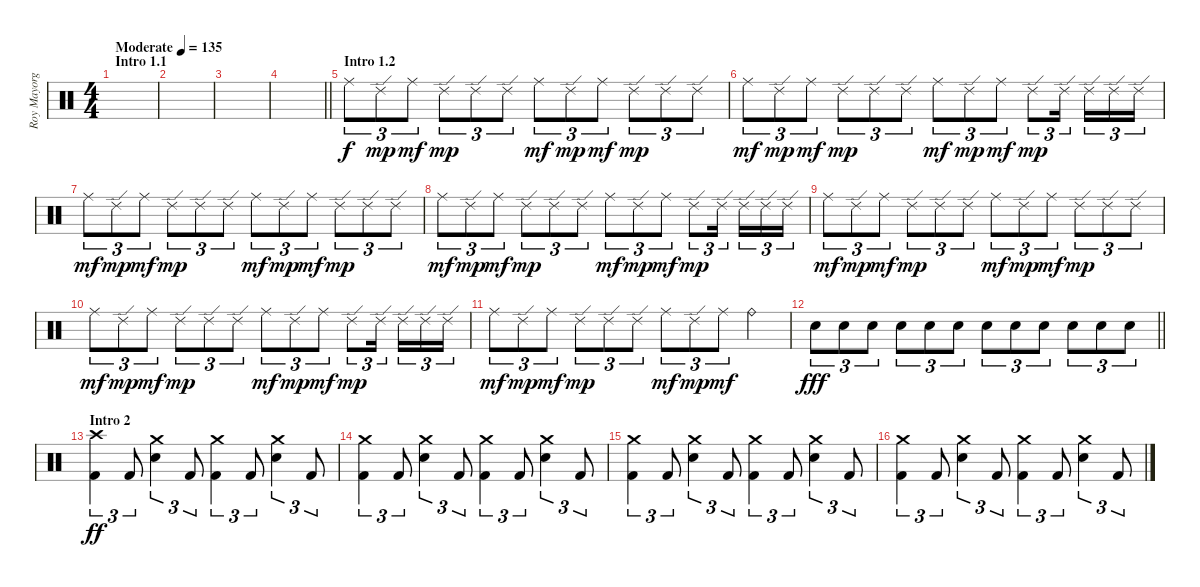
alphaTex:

\track ("Roy Mayorga" "Roy Mayorg") {instrument percussion}
\staff {score}
\articulation defaults
\ts (4 4)
\section ("" "Intro 1.1")
\tempo (135 "Moderate")
\clef neutral
\ks c
|
|
|
\barLineRight lightlight
|
\section ("" "Intro 1.2")
"Ride (middle)".8{tu (3 2)} "Ride (edge) 2".8{tu (3 2) dy mp} "Ride (middle)".8{tu (3 2) dy mf} "Ride (edge) 2".8{tu (3 2) dy mp} "Ride (edge) 2".8{tu (3 2)} "Ride (edge) 2".8{tu (3 2)} "Ride (middle)".8{tu (3 2) dy mf} "Ride (edge) 2".8{tu (3 2) dy mp} "Ride (middle)".8{tu (3 2) dy mf} "Ride (edge) 2".8{tu (3 2) dy mp} "Ride (edge) 2".8{tu (3 2)} "Ride (edge) 2".8{tu (3 2)} |
"Ride (middle)".8{tu (3 2) dy mf} "Ride (edge) 2".8{tu (3 2) dy mp} "Ride (middle)".8{tu (3 2) dy mf} "Ride (edge) 2".8{tu (3 2) dy mp} "Ride (edge) 2".8{tu (3 2)} "Ride (edge) 2".8{tu (3 2)} "Ride (middle)".8{tu (3 2) dy mf} "Ride (edge) 2".8{tu (3 2) dy mp} "Ride (middle)".8{tu (3 2) dy mf} "Ride (edge) 2".8{tu (3 2) dy mp} "Ride (edge) 2".16{tu (3 2) beam splitsecondary} "Ride (edge) 2".16{tu (3 2)} "Ride (edge) 2".16{tu (3 2)} "Ride (edge) 2".16{tu (3 2)} |
"Ride (middle)".8{tu (3 2) dy mf} "Ride (edge) 2".8{tu (3 2) dy mp} "Ride (middle)".8{tu (3 2) dy mf} "Ride (edge) 2".8{tu (3 2) dy mp} "Ride (edge) 2".8{tu (3 2)} "Ride (edge) 2".8{tu (3 2)} "Ride (middle)".8{tu (3 2) dy mf} "Ride (edge) 2".8{tu (3 2) dy mp} "Ride (middle)".8{tu (3 2) dy mf} "Ride (edge) 2".8{tu (3 2) dy mp} "Ride (edge) 2".8{tu (3 2)} "Ride (edge) 2".8{tu (3 2)} |
"Ride (middle)".8{tu (3 2) dy mf} "Ride (edge) 2".8{tu (3 2) dy mp} "Ride (middle)".8{tu (3 2) dy mf} "Ride (edge) 2".8{tu (3 2) dy mp} "Ride (edge) 2".8{tu (3 2)} "Ride (edge) 2".8{tu (3 2)} "Ride (middle)".8{tu (3 2) dy mf} "Ride (edge) 2".8{tu (3 2) dy mp} "Ride (middle)".8{tu (3 2) dy mf} "Ride (edge) 2".8{tu (3 2) dy mp} "Ride (edge) 2".16{tu (3 2) beam splitsecondary} "Ride (edge) 2".16{tu (3 2)} "Ride (edge) 2".16{tu (3 2)} "Ride (edge) 2".16{tu (3 2)} |
"Ride (middle)".8{tu (3 2) dy mf} "Ride (edge) 2".8{tu (3 2) dy mp} "Ride (middle)".8{tu (3 2) dy mf} "Ride (edge) 2".8{tu (3 2) dy mp} "Ride (edge) 2".8{tu (3 2)} "Ride (edge) 2".8{tu (3 2)} "Ride (middle)".8{tu (3 2) dy mf} "Ride (edge) 2".8{tu (3 2) dy mp} "Ride (middle)".8{tu (3 2) dy mf} "Ride (edge) 2".8{tu (3 2) dy mp} "Ride (edge) 2".8{tu (3 2)} "Ride (edge) 2".8{tu (3 2)} |
"Ride (middle)".8{tu (3 2) dy mf} "Ride (edge) 2".8{tu (3 2) dy mp} "Ride (middle)".8{tu (3 2) dy mf} "Ride (edge) 2".8{tu (3 2) dy mp} "Ride (edge) 2".8{tu (3 2)} "Ride (edge) 2".8{tu (3 2)} "Ride (middle)".8{tu (3 2) dy mf} "Ride (edge) 2".8{tu (3 2) dy mp} "Ride (middle)".8{tu (3 2) dy mf} "Ride (edge) 2".8{tu (3 2) dy mp} "Ride (edge) 2".16{tu (3 2) beam splitsecondary} "Ride (edge) 2".16{tu (3 2)} "Ride (edge) 2".16{tu (3 2)} "Ride (edge) 2".16{tu (3 2)} |
"Ride (middle)".8{tu (3 2) dy mf} "Ride (edge) 2".8{tu (3 2) dy mp} "Ride (middle)".8{tu (3 2) dy mf} "Ride (edge) 2".8{tu (3 2) dy mp} "Ride (edge) 2".8{tu (3 2)} "Ride (edge) 2".8{tu (3 2)} "Ride (middle)".8{tu (3 2) dy mf} "Ride (edge) 2".8{tu (3 2) dy mp} "Ride (middle)".8{tu (3 2) dy mf} "Ride (bell)".4 |
\barLineRight lightlight "Electric Snare (hit)".8{tu (3 2) dy fff} "Electric Snare (hit)".8{tu (3 2)} "Electric Snare (hit)".8{tu (3 2)} "Electric Snare (hit)".8{tu (3 2)} "Electric Snare (hit)".8{tu (3 2)} "Electric Snare (hit)".8{tu (3 2)} "Electric Snare (hit)".8{tu (3 2)} "Electric Snare (hit)".8{tu (3 2)} "Electric Snare (hit)".8{tu (3 2)} "Electric Snare (hit)".8{tu (3 2)} "Electric Snare (hit)".8{tu (3 2)} "Electric Snare (hit)".8{tu (3 2)}
|
\section ("" "Intro 2")
("Crash high (hit)" "Kick (hit) 2").4{tu (3 2) dy ff} "Kick (hit) 2".8{tu (3 2)} ("Crash medium (hit)" "Electric Snare (hit)").4{tu (3 2)} "Kick (hit) 2".8{tu (3 2)} ("Crash medium (hit)" "Kick (hit) 2").4{tu (3 2)} "Kick (hit) 2".8{tu (3 2)} ("Crash medium (hit)" "Electric Snare (hit)").4{tu (3 2)} "Kick (hit) 2".8{tu (3 2)} |
("Crash medium (hit)" "Kick (hit) 2").4{tu (3 2)} "Kick (hit) 2".8{tu (3 2)} ("Crash medium (hit)" "Electric Snare (hit)").4{tu (3 2)} "Kick (hit) 2".8{tu (3 2)} ("Crash medium (hit)" "Kick (hit) 2").4{tu (3 2)} "Kick (hit) 2".8{tu (3 2)} ("Crash medium (hit)" "Electric Snare (hit)").4{tu (3 2)} "Kick (hit) 2".8{tu (3 2)} |
("Crash medium (hit)" "Kick (hit) 2").4{tu (3 2)} "Kick (hit) 2".8{tu (3 2)} ("Crash medium (hit)" "Electric Snare (hit)").4{tu (3 2)} "Kick (hit) 2".8{tu (3 2)} ("Crash medium (hit)" "Kick (hit) 2").4{tu (3 2)} "Kick (hit) 2".8{tu (3 2)} ("Crash medium (hit)" "Electric Snare (hit)").4{tu (3 2)} "Kick (hit) 2".8{tu (3 2)} |
("Crash medium (hit)" "Kick (hit) 2").4{tu (3 2)} "Kick (hit) 2".8{tu (3 2)} ("Crash medium (hit)" "Electric Snare (hit)").4{tu (3 2)} "Kick (hit) 2".8{tu (3 2)} ("Crash medium (hit)" "Kick (hit) 2").4{tu (3 2)} "Kick (hit) 2".8{tu (3 2)} ("Crash medium (hit)" "Electric Snare (hit)").4{tu (3 2)} "Kick (hit) 2".8{tu (3 2)}
